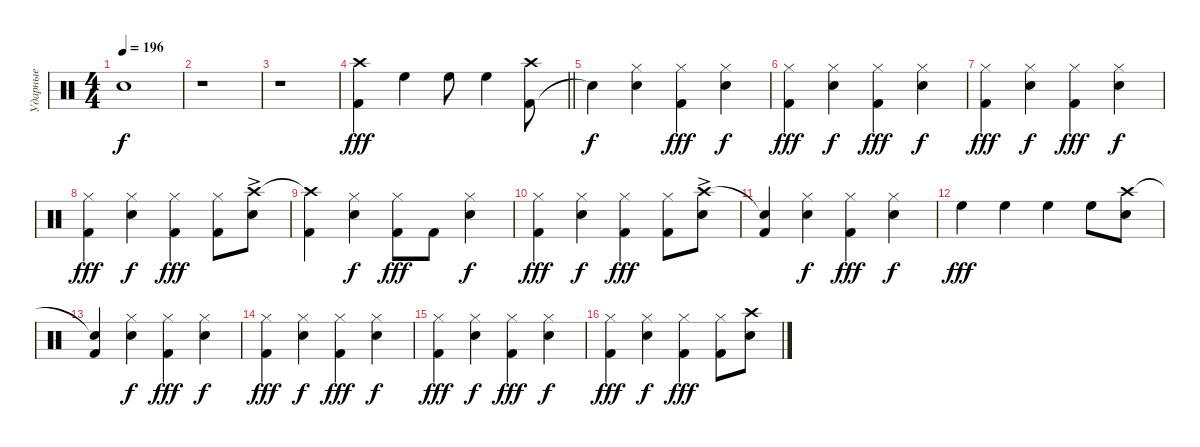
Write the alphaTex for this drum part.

\track ("Ударные" "Ударные") {instrument percussion}
\staff {score}
\articulation defaults
\ts (4 4)
\tempo 196
\clef neutral
\ks c "Snare (hit)"{t}.1{dy f}
|
r.1 |
r.1 |
\barLineRight lightlight
("Kick (hit) 2" "Crash high (hit)").4{dy fff} "High Floor Tom (hit)".4 "High Floor Tom (hit)".8 "High Floor Tom (hit)".4 ("Kick (hit) 2" "Crash high (hit)").8 |
"Snare (hit)"{t}.4{dy f} ("Snare (hit) 2" "Hi-Hat (closed)").4 ("Kick (hit) 2" "Hi-Hat (closed)").4{dy fff} ("Snare (hit) 2" "Hi-Hat (closed)").4{dy f} |
("Kick (hit) 2" "Hi-Hat (closed)").4{dy fff} ("Snare (hit) 2" "Hi-Hat (closed)").4{dy f} ("Kick (hit) 2" "Hi-Hat (closed)").4{dy fff} ("Snare (hit) 2" "Hi-Hat (closed)").4{dy f} |
("Kick (hit) 2" "Hi-Hat (closed)").4{dy fff} ("Snare (hit) 2" "Hi-Hat (closed)").4{dy f} ("Kick (hit) 2" "Hi-Hat (closed)").4{dy fff} ("Snare (hit) 2" "Hi-Hat (closed)").4{dy f} |
("Kick (hit) 2" "Hi-Hat (closed)").4{dy fff} ("Snare (hit) 2" "Hi-Hat (closed)").4{dy f} ("Kick (hit) 2" "Hi-Hat (closed)").4{dy fff} ("Kick (hit) 2" "Hi-Hat (closed)").8 ("Snare (hit) 2" "Crash high (hit)"{ac}).8 |
("Kick (hit) 2" "Crash high (hit)"{t}).4 ("Snare (hit) 2" "Hi-Hat (closed)").4{dy f} ("Kick (hit) 2" "Hi-Hat (closed)").8{dy fff} "Kick (hit) 2".8 ("Snare (hit) 2" "Hi-Hat (closed)").4{dy f} |
("Kick (hit) 2" "Hi-Hat (closed)").4{dy fff} ("Snare (hit) 2" "Hi-Hat (closed)").4{dy f} ("Kick (hit) 2" "Hi-Hat (closed)").4{dy fff} ("Kick (hit) 2" "Hi-Hat (closed)").8 ("Snare (hit) 2" "Crash high (hit)"{ac}).8 |
("Kick (hit) 2" "Snare (hit)"{t}).4 ("Snare (hit) 2" "Hi-Hat (closed)").4{dy f} ("Kick (hit) 2" "Hi-Hat (closed)").4{dy fff} ("Snare (hit) 2" "Hi-Hat (closed)").4{dy f} |
"High Floor Tom (hit)".4{dy fff} "High Floor Tom (hit)".4 "High Floor Tom (hit)".4 "High Floor Tom (hit)".8 ("Snare (hit) 2" "Crash high (hit)").8 |
("Kick (hit) 2" "Snare (hit)"{t}).4 ("Snare (hit) 2" "Hi-Hat (closed)").4{dy f} ("Kick (hit) 2" "Hi-Hat (closed)").4{dy fff} ("Snare (hit) 2" "Hi-Hat (closed)").4{dy f} |
("Kick (hit) 2" "Hi-Hat (closed)").4{dy fff} ("Snare (hit) 2" "Hi-Hat (closed)").4{dy f} ("Kick (hit) 2" "Hi-Hat (closed)").4{dy fff} ("Snare (hit) 2" "Hi-Hat (closed)").4{dy f} |
("Kick (hit) 2" "Hi-Hat (closed)").4{dy fff} ("Snare (hit) 2" "Hi-Hat (closed)").4{dy f} ("Kick (hit) 2" "Hi-Hat (closed)").4{dy fff} ("Snare (hit) 2" "Hi-Hat (closed)").4{dy f} |
("Kick (hit) 2" "Hi-Hat (closed)").4{dy fff} ("Snare (hit) 2" "Hi-Hat (closed)").4{dy f} ("Kick (hit) 2" "Hi-Hat (closed)").4{dy fff} ("Kick (hit) 2" "Hi-Hat (closed)").8 ("Snare (hit) 2" "Crash high (hit)").8
